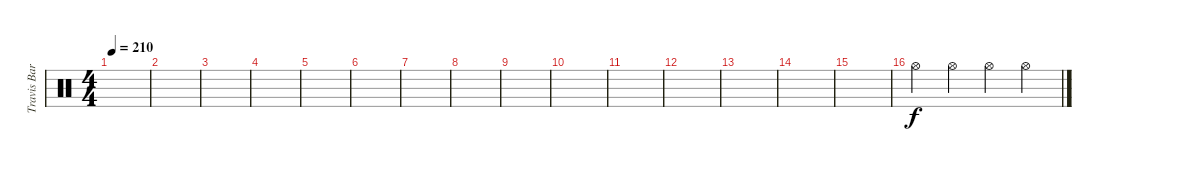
\track ("Travis Barker" "Travis Bar") {instrument percussion}
\staff {score}
\articulation defaults
\ts (4 4)
\tempo 210
\clef neutral
\ks c
|
|
|
|
|
|
|
|
|
|
|
|
|
|
|
"Hi-Hat (open)".4 "Hi-Hat (open)".4 "Hi-Hat (open)".4 "Hi-Hat (open)".4
